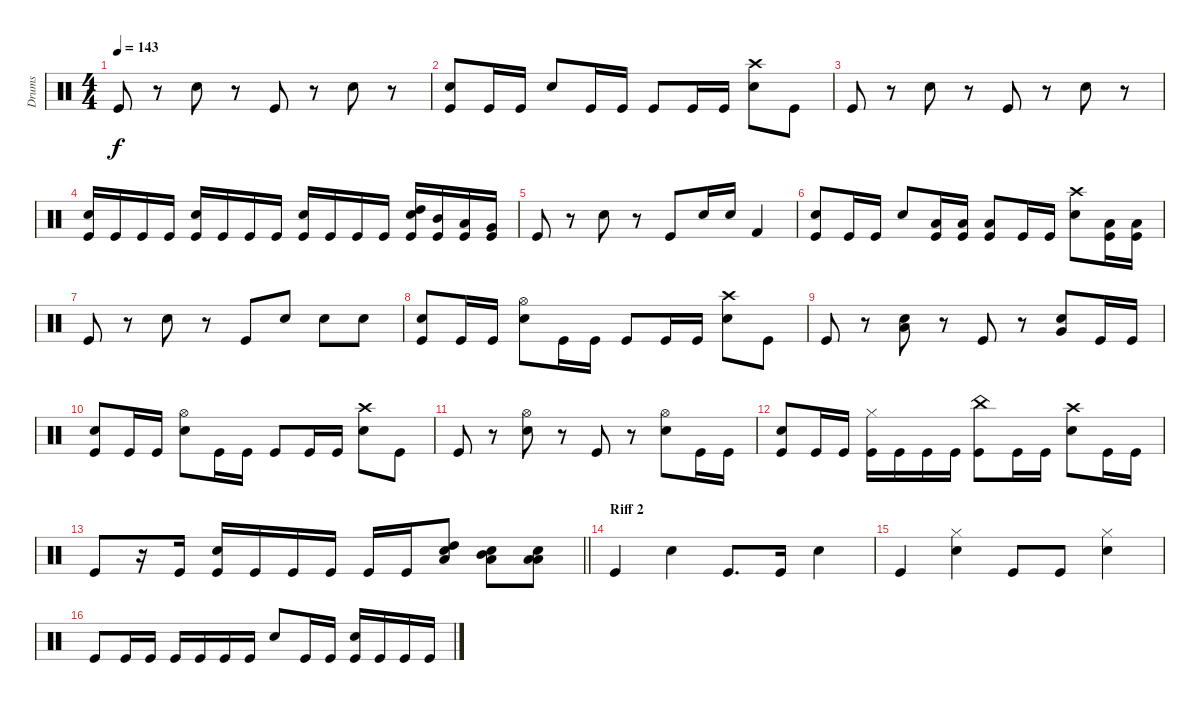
\track ("Drums" "Drums") {instrument percussion}
\staff {score}
\articulation defaults
\ts (4 4)
\tempo 143
\clef neutral
\ks c "Kick (hit)".8{dy f}
r.8 "Snare (hit) 2".8 r.8 "Kick (hit)".8 r.8 "Snare (hit) 2".8 r.8 |
("Snare (hit) 2" "Kick (hit)").8 "Kick (hit)".16 "Kick (hit)".16 "Snare (hit) 2".8 "Kick (hit)".16 "Kick (hit)".16 "Kick (hit)".8 "Kick (hit)".16 "Kick (hit)".16 ("Crash high (hit)" "Snare (hit) 2").8 "Kick (hit)".8 |
"Kick (hit)".8 r.8 "Snare (hit) 2".8 r.8 "Kick (hit)".8 r.8 "Snare (hit) 2".8 r.8 |
("Snare (hit) 2" "Kick (hit)").16 "Kick (hit)".16 "Kick (hit)".16 "Kick (hit)".16 ("Snare (hit) 2" "Kick (hit)").16 "Kick (hit)".16 "Kick (hit)".16 "Kick (hit)".16 ("Snare (hit) 2" "Kick (hit)").16 "Kick (hit)".16 "Kick (hit)".16 "Kick (hit)".16 ("High Tom (hit)" "Snare (hit) 2" "Kick (hit)").16 ("Mid Tom (hit)" "Kick (hit)").16 ("Low Tom (hit)" "Kick (hit)").16 ("Very Low Tom (hit)" "Kick (hit)").16 |
"Kick (hit)".8 r.8 "Snare (hit) 2".8 r.8 "Kick (hit)".8 "Snare (hit) 2".16 "Snare (hit) 2".16 "Kick (hit) 2".4 |
("Snare (hit) 2" "Kick (hit)").8 "Kick (hit)".16 "Kick (hit)".16 "Snare (hit) 2".8 ("Low Floor Tom (hit)" "Kick (hit)").16 ("Low Floor Tom (hit)" "Kick (hit)").16 ("Low Floor Tom (hit)" "Kick (hit)").8 "Kick (hit)".16 "Kick (hit)".16 ("Crash high (hit)" "Snare (hit) 2").8 ("Kick (hit)" "Low Floor Tom (hit)").16 ("Kick (hit)" "Low Floor Tom (hit)").16 |
"Kick (hit)".8 r.8 "Snare (hit) 2".8 r.8 "Kick (hit)".8 "Snare (hit) 2".8 "Snare (hit) 2".8 "Snare (hit) 2".8 |
("Snare (hit) 2" "Kick (hit)").8 "Kick (hit)".16 "Kick (hit)".16 ("Hi-Hat (open)" "Snare (hit) 2").8 "Kick (hit)".16 "Kick (hit)".16 "Kick (hit)".8 "Kick (hit)".16 "Kick (hit)".16 ("Crash high (hit)" "Snare (hit) 2").8 "Kick (hit)".8 |
"Kick (hit)".8 r.8 ("Snare (hit) 2" "Low Floor Tom (hit)").8 r.8 "Kick (hit)".8 r.8 ("Snare (hit) 2" "Very Low Tom (hit)").8 "Kick (hit)".16 "Kick (hit)".16 |
("Snare (hit) 2" "Kick (hit)").8 "Kick (hit)".16 "Kick (hit)".16 ("Hi-Hat (open)" "Snare (hit) 2").8 "Kick (hit)".16 "Kick (hit)".16 "Kick (hit)".8 "Kick (hit)".16 "Kick (hit)".16 ("Crash high (hit)" "Snare (hit) 2").8 "Kick (hit)".8 |
"Kick (hit)".8 r.8 ("Hi-Hat (open)" "Snare (hit) 2").8 r.8 "Kick (hit)".8 r.8 ("Hi-Hat (open)" "Snare (hit) 2").8 "Kick (hit)".16 "Kick (hit)".16 |
("Snare (hit) 2" "Kick (hit)").8 "Kick (hit)".16 "Kick (hit)".16 ("Hi-Hat (closed)" "Kick (hit)").16 "Kick (hit)".16 "Kick (hit)".16 "Kick (hit)".16 ("China (hit)" "Kick (hit)").8 "Kick (hit)".16 "Kick (hit)".16 ("Crash high (hit)" "Snare (hit) 2").8 "Kick (hit)".16 "Kick (hit)".16 |
\barLineRight lightlight "Kick (hit)".8
r.16 "Kick (hit)".16 ("Snare (hit) 2" "Kick (hit)").16 "Kick (hit)".16 "Kick (hit)".16 "Kick (hit)".16 "Kick (hit)".16 "Kick (hit)".16 ("High Tom (hit)" "Snare (hit) 2" "Low Floor Tom (hit)").8 ("Mid Tom (hit)" "Snare (hit) 2" "Low Floor Tom (hit)").8 ("Low Tom (hit)" "Snare (hit) 2" "Low Floor Tom (hit)").8 |
\section ("" "Riff 2")
"Kick (hit)".4 "Snare (hit) 2".4 "Kick (hit)".8{d} "Kick (hit)".16 "Snare (hit) 2".4 |
"Kick (hit)".4 ("Hi-Hat (closed)" "Snare (hit) 2").4 "Kick (hit)".8 "Kick (hit)".8 ("Hi-Hat (closed)" "Snare (hit) 2").4 |
"Kick (hit)".8 "Kick (hit)".16 "Kick (hit)".16 "Kick (hit)".16 "Kick (hit)".16 "Kick (hit)".16 "Kick (hit)".16 "Snare (hit) 2".8 "Kick (hit)".16 "Kick (hit)".16 ("Snare (hit) 2" "Kick (hit)").16 "Kick (hit)".16 "Kick (hit)".16 "Kick (hit)".16
